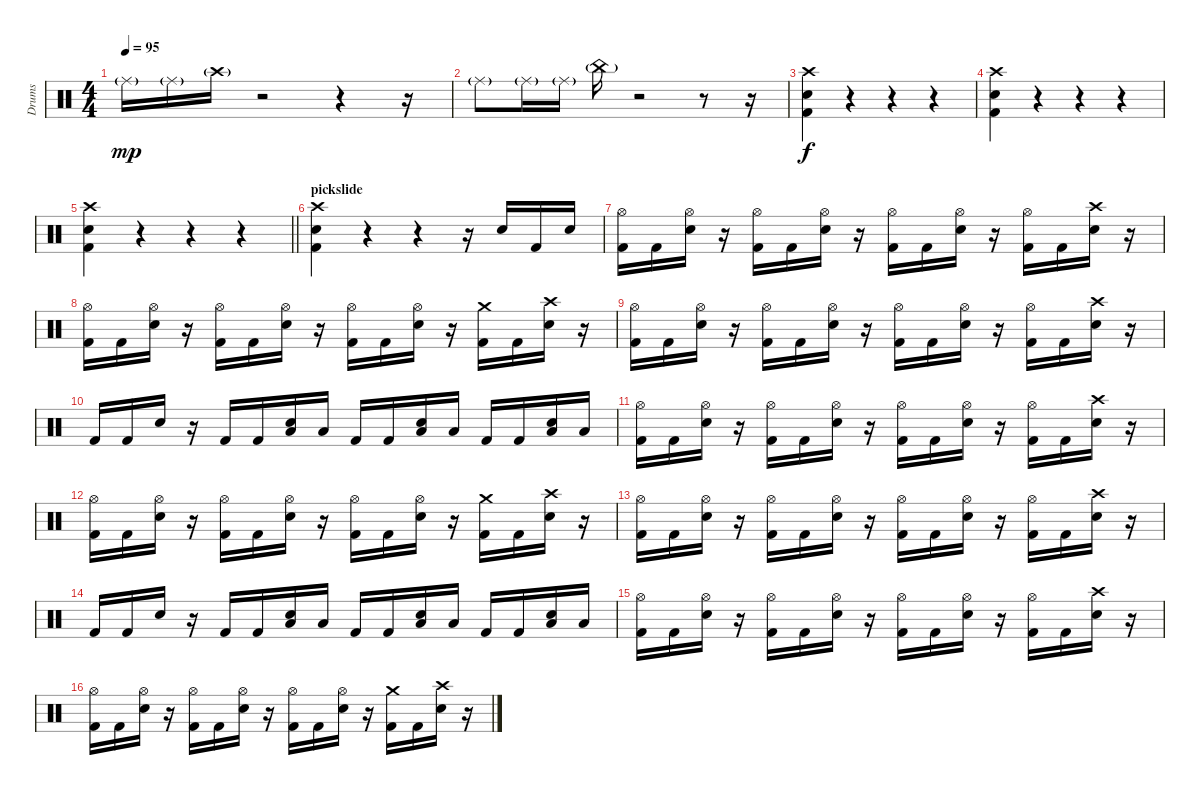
\track ("Drums" "Drums") {instrument percussion}
\staff {score}
\articulation defaults
\ts (4 4)
\tempo 95
\clef neutral
\ks c "Ride (middle)"{g}.16{dy mp} "Ride (middle)"{g}.16 "Crash high (hit)"{g}.16
r.2 r.4 r.16 |
"Ride (middle)"{g}.8 "Ride (middle)"{g}.16 "Ride (middle)"{g}.16 "China (hit)"{g}.16 r.2 r.8 r.16 |
("Kick (hit) 2" "Snare (hit) 2" "Crash high (hit)").4{dy f} r.4 r.4 r.4 |
("Kick (hit) 2" "Snare (hit) 2" "Crash high (hit)").4 r.4 r.4 r.4 |
\barLineRight lightlight
("Kick (hit) 2" "Snare (hit) 2" "Crash high (hit)").4 r.4 r.4 r.4 |
\section ("" "pickslide")
("Kick (hit) 2" "Snare (hit) 2" "Crash high (hit)").4 r.4 r.4 r.16 "Snare (hit) 2".16 "Kick (hit) 2".16 "Snare (hit) 2".16 |
("Kick (hit) 2" "Hi-Hat (open)").16 "Kick (hit) 2".16 ("Snare (hit) 2" "Hi-Hat (open)").16 r.16 ("Kick (hit) 2" "Hi-Hat (open)").16 "Kick (hit) 2".16 ("Snare (hit) 2" "Hi-Hat (open)").16 r.16 ("Kick (hit) 2" "Hi-Hat (open)").16 "Kick (hit) 2".16 ("Snare (hit) 2" "Hi-Hat (open)").16 r.16 ("Kick (hit) 2" "Hi-Hat (open)").16 "Kick (hit) 2".16 ("Snare (hit) 2" "Crash high (hit)").16 r.16 |
("Kick (hit) 2" "Hi-Hat (open)").16 "Kick (hit) 2".16 ("Snare (hit) 2" "Hi-Hat (open)").16 r.16 ("Kick (hit) 2" "Hi-Hat (open)").16 "Kick (hit) 2".16 ("Snare (hit) 2" "Hi-Hat (open)").16 r.16 ("Kick (hit) 2" "Hi-Hat (open)").16 "Kick (hit) 2".16 ("Snare (hit) 2" "Hi-Hat (open)").16 r.16 ("Kick (hit) 2" "Crash medium (hit)").16 "Kick (hit) 2".16 ("Snare (hit) 2" "Crash high (hit)").16 r.16 |
("Kick (hit) 2" "Hi-Hat (open)").16 "Kick (hit) 2".16 ("Snare (hit) 2" "Hi-Hat (open)").16 r.16 ("Kick (hit) 2" "Hi-Hat (open)").16 "Kick (hit) 2".16 ("Snare (hit) 2" "Hi-Hat (open)").16 r.16 ("Kick (hit) 2" "Hi-Hat (open)").16 "Kick (hit) 2".16 ("Snare (hit) 2" "Hi-Hat (open)").16 r.16 ("Kick (hit) 2" "Hi-Hat (open)").16 "Kick (hit) 2".16 ("Snare (hit) 2" "Crash high (hit)").16 r.16 |
"Kick (hit) 2".16 "Kick (hit) 2".16 "Snare (hit) 2".16 r.16 "Kick (hit) 2".16 "Kick (hit) 2".16 ("Snare (hit) 2" "Low Tom (hit)").16 "Low Tom (hit)".16 "Kick (hit) 2".16 "Kick (hit) 2".16 ("Snare (hit) 2" "Low Tom (hit)").16 "Low Tom (hit)".16 "Kick (hit) 2".16 "Kick (hit) 2".16 ("Snare (hit) 2" "Low Tom (hit)").16 "Low Tom (hit)".16 |
("Kick (hit) 2" "Hi-Hat (open)").16 "Kick (hit) 2".16 ("Snare (hit) 2" "Hi-Hat (open)").16 r.16 ("Kick (hit) 2" "Hi-Hat (open)").16 "Kick (hit) 2".16 ("Snare (hit) 2" "Hi-Hat (open)").16 r.16 ("Kick (hit) 2" "Hi-Hat (open)").16 "Kick (hit) 2".16 ("Snare (hit) 2" "Hi-Hat (open)").16 r.16 ("Kick (hit) 2" "Hi-Hat (open)").16 "Kick (hit) 2".16 ("Snare (hit) 2" "Crash high (hit)").16 r.16 |
("Kick (hit) 2" "Hi-Hat (open)").16 "Kick (hit) 2".16 ("Snare (hit) 2" "Hi-Hat (open)").16 r.16 ("Kick (hit) 2" "Hi-Hat (open)").16 "Kick (hit) 2".16 ("Snare (hit) 2" "Hi-Hat (open)").16 r.16 ("Kick (hit) 2" "Hi-Hat (open)").16 "Kick (hit) 2".16 ("Snare (hit) 2" "Hi-Hat (open)").16 r.16 ("Kick (hit) 2" "Crash medium (hit)").16 "Kick (hit) 2".16 ("Snare (hit) 2" "Crash high (hit)").16 r.16 |
("Kick (hit) 2" "Hi-Hat (open)").16 "Kick (hit) 2".16 ("Snare (hit) 2" "Hi-Hat (open)").16 r.16 ("Kick (hit) 2" "Hi-Hat (open)").16 "Kick (hit) 2".16 ("Snare (hit) 2" "Hi-Hat (open)").16 r.16 ("Kick (hit) 2" "Hi-Hat (open)").16 "Kick (hit) 2".16 ("Snare (hit) 2" "Hi-Hat (open)").16 r.16 ("Kick (hit) 2" "Hi-Hat (open)").16 "Kick (hit) 2".16 ("Snare (hit) 2" "Crash high (hit)").16 r.16 |
"Kick (hit) 2".16 "Kick (hit) 2".16 "Snare (hit) 2".16 r.16 "Kick (hit) 2".16 "Kick (hit) 2".16 ("Snare (hit) 2" "Low Tom (hit)").16 "Low Tom (hit)".16 "Kick (hit) 2".16 "Kick (hit) 2".16 ("Snare (hit) 2" "Low Tom (hit)").16 "Low Tom (hit)".16 "Kick (hit) 2".16 "Kick (hit) 2".16 ("Snare (hit) 2" "Low Tom (hit)").16 "Low Tom (hit)".16 |
("Kick (hit) 2" "Hi-Hat (open)").16 "Kick (hit) 2".16 ("Snare (hit) 2" "Hi-Hat (open)").16 r.16 ("Kick (hit) 2" "Hi-Hat (open)").16 "Kick (hit) 2".16 ("Snare (hit) 2" "Hi-Hat (open)").16 r.16 ("Kick (hit) 2" "Hi-Hat (open)").16 "Kick (hit) 2".16 ("Snare (hit) 2" "Hi-Hat (open)").16 r.16 ("Kick (hit) 2" "Hi-Hat (open)").16 "Kick (hit) 2".16 ("Snare (hit) 2" "Crash high (hit)").16 r.16 |
("Kick (hit) 2" "Hi-Hat (open)").16 "Kick (hit) 2".16 ("Snare (hit) 2" "Hi-Hat (open)").16 r.16 ("Kick (hit) 2" "Hi-Hat (open)").16 "Kick (hit) 2".16 ("Snare (hit) 2" "Hi-Hat (open)").16 r.16 ("Kick (hit) 2" "Hi-Hat (open)").16 "Kick (hit) 2".16 ("Snare (hit) 2" "Hi-Hat (open)").16 r.16 ("Kick (hit) 2" "Crash medium (hit)").16 "Kick (hit) 2".16 ("Snare (hit) 2" "Crash high (hit)").16 r.16
